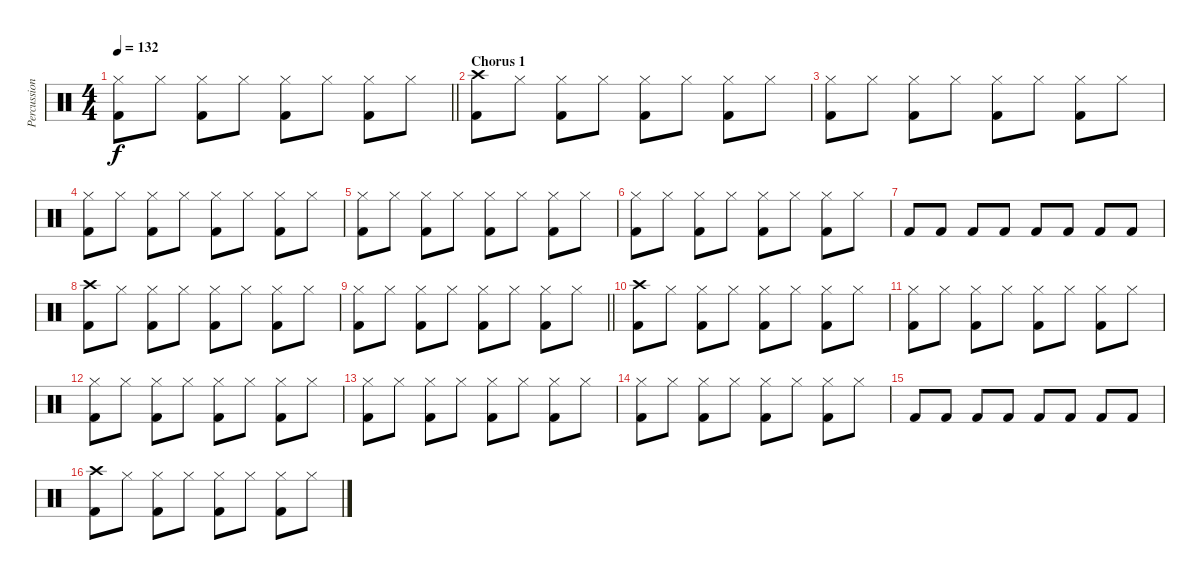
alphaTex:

\track ("Percussion" "Percussion") {instrument percussion}
\staff {score}
\articulation defaults
\ts (4 4)
\tempo 132
\clef neutral
\barLineRight lightlight
\ks c
("Hi-Hat (closed)" "Kick (hit) 2").8{dy f} "Hi-Hat (closed)".8 ("Hi-Hat (closed)" "Kick (hit) 2").8 "Hi-Hat (closed)".8 ("Hi-Hat (closed)" "Kick (hit) 2").8 "Hi-Hat (closed)".8 ("Hi-Hat (closed)" "Kick (hit) 2").8 "Hi-Hat (closed)".8 |
\section ("" "Chorus 1")
("Crash high (hit)" "Kick (hit) 2").8 "Hi-Hat (closed)".8 ("Hi-Hat (closed)" "Kick (hit) 2").8 "Hi-Hat (closed)".8 ("Hi-Hat (closed)" "Kick (hit) 2").8 "Hi-Hat (closed)".8 ("Hi-Hat (closed)" "Kick (hit) 2").8 "Hi-Hat (closed)".8 |
("Hi-Hat (closed)" "Kick (hit) 2").8 "Hi-Hat (closed)".8 ("Hi-Hat (closed)" "Kick (hit) 2").8 "Hi-Hat (closed)".8 ("Hi-Hat (closed)" "Kick (hit) 2").8 "Hi-Hat (closed)".8 ("Hi-Hat (closed)" "Kick (hit) 2").8 "Hi-Hat (closed)".8 |
("Hi-Hat (closed)" "Kick (hit) 2").8 "Hi-Hat (closed)".8 ("Hi-Hat (closed)" "Kick (hit) 2").8 "Hi-Hat (closed)".8 ("Hi-Hat (closed)" "Kick (hit) 2").8 "Hi-Hat (closed)".8 ("Hi-Hat (closed)" "Kick (hit) 2").8 "Hi-Hat (closed)".8 |
("Hi-Hat (closed)" "Kick (hit) 2").8 "Hi-Hat (closed)".8 ("Hi-Hat (closed)" "Kick (hit) 2").8 "Hi-Hat (closed)".8 ("Hi-Hat (closed)" "Kick (hit) 2").8 "Hi-Hat (closed)".8 ("Hi-Hat (closed)" "Kick (hit) 2").8 "Hi-Hat (closed)".8 |
("Hi-Hat (closed)" "Kick (hit) 2").8 "Hi-Hat (closed)".8 ("Hi-Hat (closed)" "Kick (hit) 2").8 "Hi-Hat (closed)".8 ("Hi-Hat (closed)" "Kick (hit) 2").8 "Hi-Hat (closed)".8 ("Hi-Hat (closed)" "Kick (hit) 2").8 "Hi-Hat (closed)".8 |
"Kick (hit) 2".8 "Kick (hit) 2".8 "Kick (hit) 2".8 "Kick (hit) 2".8 "Kick (hit) 2".8 "Kick (hit) 2".8 "Kick (hit) 2".8 "Kick (hit) 2".8 |
("Crash high (hit)" "Kick (hit) 2").8 "Hi-Hat (closed)".8 ("Hi-Hat (closed)" "Kick (hit) 2").8 "Hi-Hat (closed)".8 ("Hi-Hat (closed)" "Kick (hit) 2").8 "Hi-Hat (closed)".8 ("Hi-Hat (closed)" "Kick (hit) 2").8 "Hi-Hat (closed)".8 |
\barLineRight lightlight
("Hi-Hat (closed)" "Kick (hit) 2").8 "Hi-Hat (closed)".8 ("Hi-Hat (closed)" "Kick (hit) 2").8 "Hi-Hat (closed)".8 ("Hi-Hat (closed)" "Kick (hit) 2").8 "Hi-Hat (closed)".8 ("Hi-Hat (closed)" "Kick (hit) 2").8 "Hi-Hat (closed)".8 |
("Crash high (hit)" "Kick (hit) 2").8 "Hi-Hat (closed)".8 ("Hi-Hat (closed)" "Kick (hit) 2").8 "Hi-Hat (closed)".8 ("Hi-Hat (closed)" "Kick (hit) 2").8 "Hi-Hat (closed)".8 ("Hi-Hat (closed)" "Kick (hit) 2").8 "Hi-Hat (closed)".8 |
("Hi-Hat (closed)" "Kick (hit) 2").8 "Hi-Hat (closed)".8 ("Hi-Hat (closed)" "Kick (hit) 2").8 "Hi-Hat (closed)".8 ("Hi-Hat (closed)" "Kick (hit) 2").8 "Hi-Hat (closed)".8 ("Hi-Hat (closed)" "Kick (hit) 2").8 "Hi-Hat (closed)".8 |
("Hi-Hat (closed)" "Kick (hit) 2").8 "Hi-Hat (closed)".8 ("Hi-Hat (closed)" "Kick (hit) 2").8 "Hi-Hat (closed)".8 ("Hi-Hat (closed)" "Kick (hit) 2").8 "Hi-Hat (closed)".8 ("Hi-Hat (closed)" "Kick (hit) 2").8 "Hi-Hat (closed)".8 |
("Hi-Hat (closed)" "Kick (hit) 2").8 "Hi-Hat (closed)".8 ("Hi-Hat (closed)" "Kick (hit) 2").8 "Hi-Hat (closed)".8 ("Hi-Hat (closed)" "Kick (hit) 2").8 "Hi-Hat (closed)".8 ("Hi-Hat (closed)" "Kick (hit) 2").8 "Hi-Hat (closed)".8 |
("Hi-Hat (closed)" "Kick (hit) 2").8 "Hi-Hat (closed)".8 ("Hi-Hat (closed)" "Kick (hit) 2").8 "Hi-Hat (closed)".8 ("Hi-Hat (closed)" "Kick (hit) 2").8 "Hi-Hat (closed)".8 ("Hi-Hat (closed)" "Kick (hit) 2").8 "Hi-Hat (closed)".8 |
"Kick (hit) 2".8 "Kick (hit) 2".8 "Kick (hit) 2".8 "Kick (hit) 2".8 "Kick (hit) 2".8 "Kick (hit) 2".8 "Kick (hit) 2".8 "Kick (hit) 2".8 |
("Crash high (hit)" "Kick (hit) 2").8 "Hi-Hat (closed)".8 ("Hi-Hat (closed)" "Kick (hit) 2").8 "Hi-Hat (closed)".8 ("Hi-Hat (closed)" "Kick (hit) 2").8 "Hi-Hat (closed)".8 ("Hi-Hat (closed)" "Kick (hit) 2").8 "Hi-Hat (closed)".8
